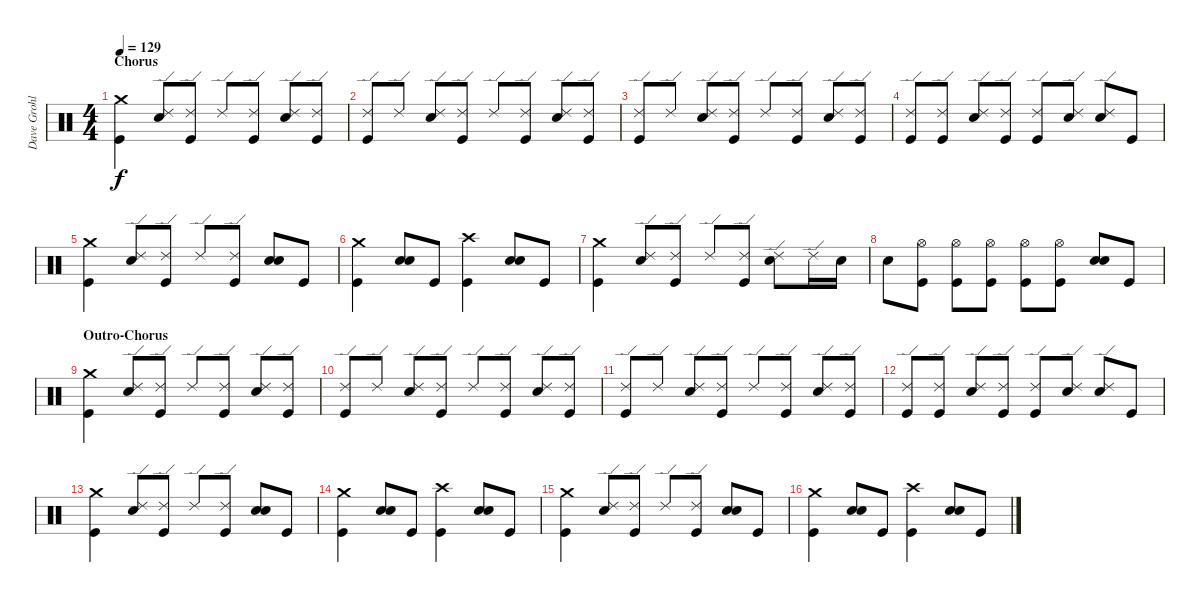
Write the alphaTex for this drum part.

\track ("Dave Grohl" "Dave Grohl") {instrument percussion}
\staff {score}
\articulation defaults
\ts (4 4)
\section ("" "Chorus")
\tempo 129
\clef neutral
\ks c
("Crash medium (hit)" "Kick (hit)").4{dy f} ("Ride (edge) 2" "Electric Snare (hit)").8 ("Ride (edge) 2" "Kick (hit)").8 "Ride (edge) 2".8 ("Ride (edge) 2" "Kick (hit)").8 ("Ride (edge) 2" "Electric Snare (hit)").8 ("Ride (edge) 2" "Kick (hit)").8 |
("Ride (edge) 2" "Kick (hit)").8 "Ride (edge) 2".8 ("Ride (edge) 2" "Electric Snare (hit)").8 ("Ride (edge) 2" "Kick (hit)").8 "Ride (edge) 2".8 ("Ride (edge) 2" "Kick (hit)").8 ("Ride (edge) 2" "Electric Snare (hit)").8 ("Ride (edge) 2" "Kick (hit)").8 |
("Ride (edge) 2" "Kick (hit)").8 "Ride (edge) 2".8 ("Ride (edge) 2" "Electric Snare (hit)").8 ("Ride (edge) 2" "Kick (hit)").8 "Ride (edge) 2".8 ("Ride (edge) 2" "Kick (hit)").8 ("Ride (edge) 2" "Electric Snare (hit)").8 ("Ride (edge) 2" "Kick (hit)").8 |
("Ride (edge) 2" "Kick (hit)").8 ("Ride (edge) 2" "Kick (hit)").8 ("Ride (edge) 2" "Electric Snare (hit)").8 ("Ride (edge) 2" "Kick (hit)").8 ("Ride (edge) 2" "Kick (hit)").8 ("Ride (edge) 2" "Electric Snare (hit)").8 ("Ride (edge) 2" "Electric Snare (hit)").8 "Kick (hit)".8 |
("Crash medium (hit)" "Kick (hit)").4 ("Ride (edge) 2" "Electric Snare (hit)").8 ("Ride (edge) 2" "Kick (hit)").8 "Ride (edge) 2".8 ("Ride (edge) 2" "Kick (hit)").8 ("Electric Snare (hit)" "Electric Snare (hit)").8{bd 120} "Kick (hit)".8 |
("Crash medium (hit)" "Kick (hit)").4 ("Electric Snare (hit)" "Electric Snare (hit)").8{bd 120} "Kick (hit)".8 ("Crash high (hit)" "Kick (hit)").4 ("Electric Snare (hit)" "Electric Snare (hit)").8{bd 120} "Kick (hit)".8 |
("Crash medium (hit)" "Kick (hit)").4 ("Ride (edge) 2" "Electric Snare (hit)").8 ("Ride (edge) 2" "Kick (hit)").8 "Ride (edge) 2".8 ("Ride (edge) 2" "Kick (hit)").8 ("Ride (edge) 2" "Electric Snare (hit)").8 "Ride (edge) 2".16 "Electric Snare (hit)".16 |
"Electric Snare (hit)".8 ("Hi-Hat (open)" "Kick (hit)").8 ("Hi-Hat (open)" "Kick (hit)").8 ("Hi-Hat (open)" "Kick (hit)").8 ("Hi-Hat (open)" "Kick (hit)").8 ("Hi-Hat (open)" "Kick (hit)").8 ("Electric Snare (hit)" "Electric Snare (hit)").8{bd 60} "Kick (hit)".8 |
\section ("" "Outro-Chorus")
("Crash medium (hit)" "Kick (hit)").4 ("Ride (edge) 2" "Electric Snare (hit)").8 ("Ride (edge) 2" "Kick (hit)").8 "Ride (edge) 2".8 ("Ride (edge) 2" "Kick (hit)").8 ("Ride (edge) 2" "Electric Snare (hit)").8 ("Ride (edge) 2" "Kick (hit)").8 |
("Ride (edge) 2" "Kick (hit)").8 "Ride (edge) 2".8 ("Ride (edge) 2" "Electric Snare (hit)").8 ("Ride (edge) 2" "Kick (hit)").8 "Ride (edge) 2".8 ("Ride (edge) 2" "Kick (hit)").8 ("Ride (edge) 2" "Electric Snare (hit)").8 ("Ride (edge) 2" "Kick (hit)").8 |
("Ride (edge) 2" "Kick (hit)").8 "Ride (edge) 2".8 ("Ride (edge) 2" "Electric Snare (hit)").8 ("Ride (edge) 2" "Kick (hit)").8 "Ride (edge) 2".8 ("Ride (edge) 2" "Kick (hit)").8 ("Ride (edge) 2" "Electric Snare (hit)").8 ("Ride (edge) 2" "Kick (hit)").8 |
("Ride (edge) 2" "Kick (hit)").8 ("Ride (edge) 2" "Kick (hit)").8 ("Ride (edge) 2" "Electric Snare (hit)").8 ("Ride (edge) 2" "Kick (hit)").8 ("Ride (edge) 2" "Kick (hit)").8 ("Ride (edge) 2" "Electric Snare (hit)").8 ("Ride (edge) 2" "Electric Snare (hit)").8 "Kick (hit)".8 |
("Crash medium (hit)" "Kick (hit)").4 ("Ride (edge) 2" "Electric Snare (hit)").8 ("Ride (edge) 2" "Kick (hit)").8 "Ride (edge) 2".8 ("Ride (edge) 2" "Kick (hit)").8 ("Electric Snare (hit)" "Electric Snare (hit)").8{bd 120} "Kick (hit)".8 |
("Crash medium (hit)" "Kick (hit)").4 ("Electric Snare (hit)" "Electric Snare (hit)").8{bd 120} "Kick (hit)".8 ("Crash high (hit)" "Kick (hit)").4 ("Electric Snare (hit)" "Electric Snare (hit)").8{bd 120} "Kick (hit)".8 |
("Crash medium (hit)" "Kick (hit)").4 ("Ride (edge) 2" "Electric Snare (hit)").8 ("Ride (edge) 2" "Kick (hit)").8 "Ride (edge) 2".8 ("Ride (edge) 2" "Kick (hit)").8 ("Electric Snare (hit)" "Electric Snare (hit)").8{bd 120} "Kick (hit)".8 |
("Crash medium (hit)" "Kick (hit)").4 ("Electric Snare (hit)" "Electric Snare (hit)").8{bd 120} "Kick (hit)".8 ("Crash high (hit)" "Kick (hit)").4 ("Electric Snare (hit)" "Electric Snare (hit)").8{bd 120} "Kick (hit)".8
